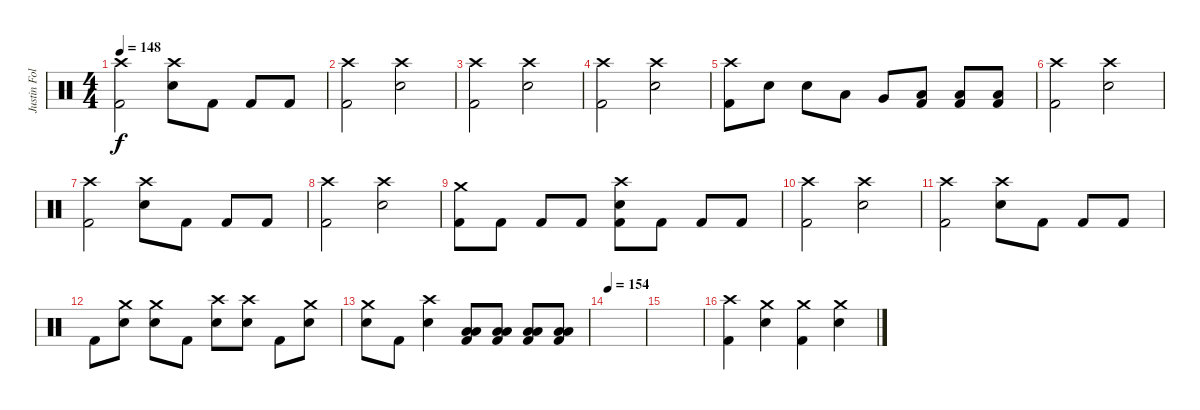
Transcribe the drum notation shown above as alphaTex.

\track ("Justin Foley" "Justin Fol") {instrument percussion}
\staff {score}
\articulation defaults
\ts (4 4)
\tempo 148
\clef neutral
\ks c
("Crash high (hit)" "Kick (hit) 2").2{dy f} ("Crash high (hit)" "Electric Snare (hit)").8 "Kick (hit) 2".8 "Kick (hit) 2".8 "Kick (hit) 2".8 |
("Crash high (hit)" "Kick (hit) 2").2 ("Crash high (hit)" "Electric Snare (hit)").2 |
("Crash high (hit)" "Kick (hit) 2").2 ("Crash high (hit)" "Electric Snare (hit)").2 |
("Crash high (hit)" "Kick (hit) 2").2 ("Crash high (hit)" "Electric Snare (hit)").2 |
("Crash high (hit)" "Kick (hit) 2").8 "Electric Snare (hit)".8 "Electric Snare (hit)".8 "Low Tom (hit)".8 "Very Low Tom (hit)".8 ("Low Floor Tom (hit)" "Kick (hit) 2").8 ("Low Floor Tom (hit)" "Kick (hit) 2").8 ("Low Floor Tom (hit)" "Kick (hit) 2").8 |
("Crash high (hit)" "Kick (hit) 2").2 ("Crash high (hit)" "Electric Snare (hit)").2 |
("Crash high (hit)" "Kick (hit) 2").2 ("Crash high (hit)" "Electric Snare (hit)").8 "Kick (hit) 2".8 "Kick (hit) 2".8 "Kick (hit) 2".8 |
("Crash high (hit)" "Kick (hit) 2").2 ("Crash high (hit)" "Electric Snare (hit)").2 |
("Crash medium (hit)" "Kick (hit) 2").8 "Kick (hit) 2".8 "Kick (hit) 2".8 "Kick (hit) 2".8 ("Crash high (hit)" "Electric Snare (hit)" "Kick (hit) 2").8 "Kick (hit) 2".8 "Kick (hit) 2".8 "Kick (hit) 2".8 |
("Crash high (hit)" "Kick (hit) 2").2 ("Crash high (hit)" "Electric Snare (hit)").2 |
("Crash high (hit)" "Kick (hit) 2").2 ("Crash high (hit)" "Electric Snare (hit)").8 "Kick (hit) 2".8 "Kick (hit) 2".8 "Kick (hit) 2".8 |
"Kick (hit) 2".8 ("Crash medium (hit)" "Electric Snare (hit)").8 ("Crash medium (hit)" "Electric Snare (hit)").8 "Kick (hit) 2".8 ("Crash high (hit)" "Electric Snare (hit)").8 ("Crash high (hit)" "Electric Snare (hit)").8 "Kick (hit) 2".8 ("Crash medium (hit)" "Electric Snare (hit)").8 |
("Crash medium (hit)" "Electric Snare (hit)").8 "Kick (hit) 2".8 ("Crash high (hit)" "Electric Snare (hit)").4 ("Low Tom (hit)" "Low Floor Tom (hit)" "Kick (hit) 2").8 ("Low Tom (hit)" "Low Floor Tom (hit)" "Kick (hit) 2").8 ("Low Tom (hit)" "Low Floor Tom (hit)" "Kick (hit) 2").8 ("Low Tom (hit)" "Low Floor Tom (hit)" "Kick (hit) 2").8 |
\tempo 154
|
|
("Crash high (hit)" "Kick (hit) 2").4 ("Crash medium (hit)" "Electric Snare (hit)").4 ("Crash medium (hit)" "Kick (hit) 2").4 ("Crash medium (hit)" "Electric Snare (hit)").4
